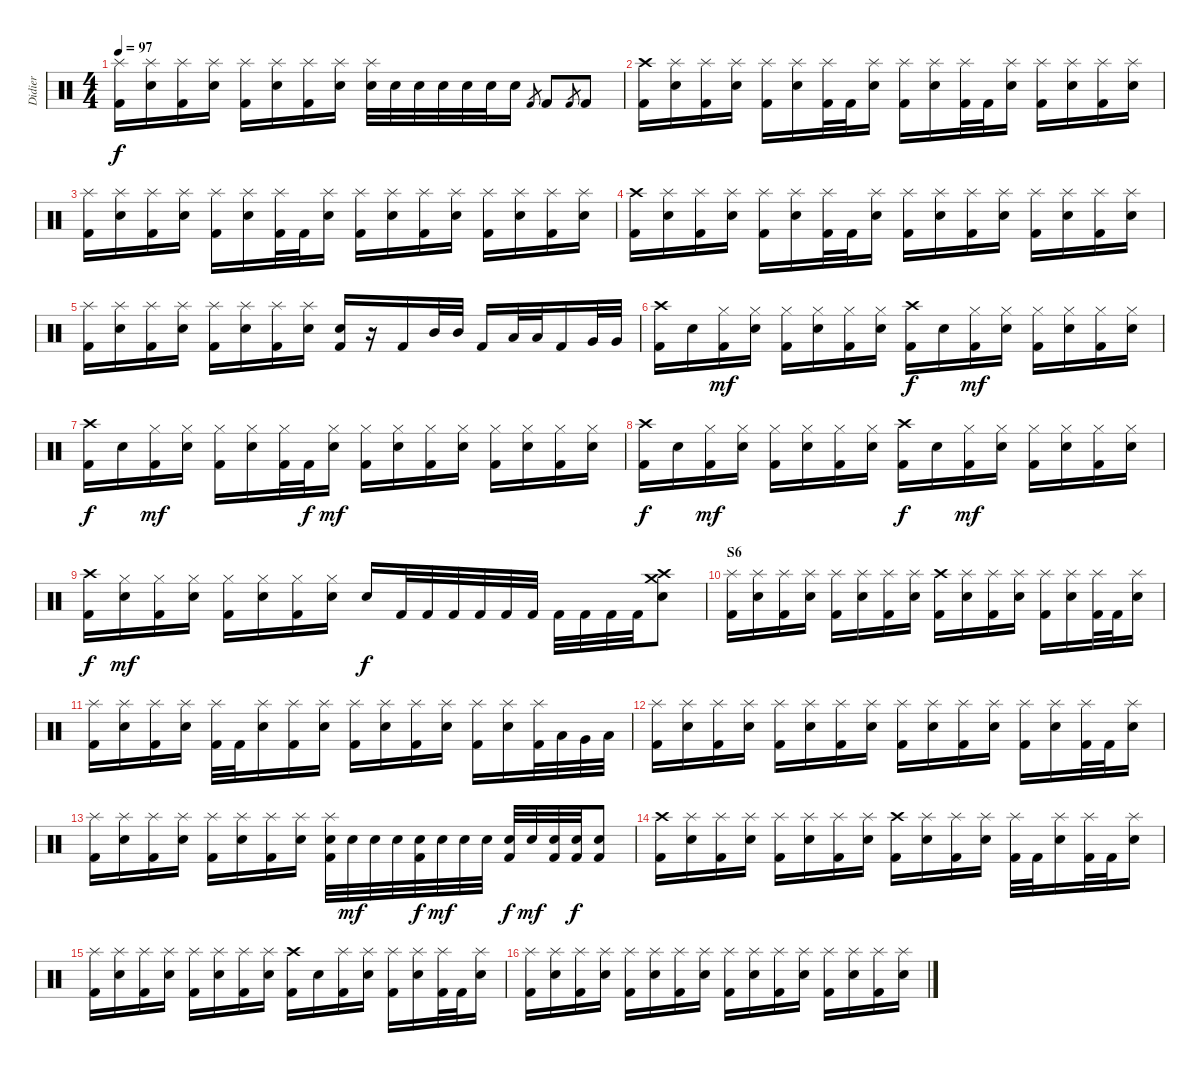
\track ("Didier" "Didier") {instrument percussion}
\staff {score}
\articulation defaults
\ts (4 4)
\tempo 97
\clef neutral
\ks c
("Splash (hit)" "Kick (hit) 2").16{dy f} ("Splash (hit)" "Snare (hit) 2").16 ("Splash (hit)" "Kick (hit) 2").16 ("Splash (hit)" "Snare (hit) 2").16 ("Splash (hit)" "Kick (hit) 2").16 ("Splash (hit)" "Snare (hit) 2").16 ("Splash (hit)" "Kick (hit) 2").16 ("Splash (hit)" "Snare (hit) 2").16 ("Splash (hit)" "Snare (hit) 2").32 "Snare (hit) 2".32 "Snare (hit) 2".32 "Snare (hit) 2".32 "Snare (hit) 2".32 "Snare (hit) 2".32 "Snare (hit) 2".16 "Kick (hit) 2".8{gr} "Kick (hit) 2".8 "Kick (hit) 2".8{gr} "Kick (hit) 2".8 |
("Crash high (hit)" "Kick (hit) 2").16 ("Splash (hit)" "Snare (hit) 2").16 ("Splash (hit)" "Kick (hit) 2").16 ("Splash (hit)" "Snare (hit) 2").16 ("Splash (hit)" "Kick (hit) 2").16 ("Splash (hit)" "Snare (hit) 2").16 ("Splash (hit)" "Kick (hit) 2").32 "Kick (hit) 2".32 ("Splash (hit)" "Snare (hit) 2").16 ("Splash (hit)" "Kick (hit) 2").16 ("Splash (hit)" "Snare (hit) 2").16 ("Splash (hit)" "Kick (hit) 2").32 "Kick (hit) 2".32 ("Splash (hit)" "Snare (hit) 2").16 ("Splash (hit)" "Kick (hit) 2").16 ("Splash (hit)" "Snare (hit) 2").16 ("Splash (hit)" "Kick (hit) 2").16 ("Splash (hit)" "Snare (hit) 2").16 |
("Splash (hit)" "Kick (hit) 2").16 ("Splash (hit)" "Snare (hit) 2").16 ("Splash (hit)" "Kick (hit) 2").16 ("Splash (hit)" "Snare (hit) 2").16 ("Splash (hit)" "Kick (hit) 2").16 ("Splash (hit)" "Snare (hit) 2").16 ("Splash (hit)" "Kick (hit) 2").32 "Kick (hit) 2".32 ("Splash (hit)" "Snare (hit) 2").16 ("Splash (hit)" "Kick (hit) 2").16 ("Splash (hit)" "Snare (hit) 2").16 ("Splash (hit)" "Kick (hit) 2").16 ("Splash (hit)" "Snare (hit) 2").16 ("Splash (hit)" "Kick (hit) 2").16 ("Splash (hit)" "Snare (hit) 2").16 ("Splash (hit)" "Kick (hit) 2").16 ("Splash (hit)" "Snare (hit) 2").16 |
("Crash high (hit)" "Kick (hit) 2").16 ("Splash (hit)" "Snare (hit) 2").16 ("Splash (hit)" "Kick (hit) 2").16 ("Splash (hit)" "Snare (hit) 2").16 ("Splash (hit)" "Kick (hit) 2").16 ("Splash (hit)" "Snare (hit) 2").16 ("Splash (hit)" "Kick (hit) 2").32 "Kick (hit) 2".32 ("Splash (hit)" "Snare (hit) 2").16 ("Splash (hit)" "Kick (hit) 2").16 ("Splash (hit)" "Snare (hit) 2").16 ("Splash (hit)" "Kick (hit) 2").16 ("Splash (hit)" "Snare (hit) 2").16 ("Splash (hit)" "Kick (hit) 2").16 ("Splash (hit)" "Snare (hit) 2").16 ("Splash (hit)" "Kick (hit) 2").16 ("Splash (hit)" "Snare (hit) 2").16 |
("Splash (hit)" "Kick (hit) 2").16 ("Splash (hit)" "Snare (hit) 2").16 ("Splash (hit)" "Kick (hit) 2").16 ("Splash (hit)" "Snare (hit) 2").16 ("Splash (hit)" "Kick (hit) 2").16 ("Splash (hit)" "Snare (hit) 2").16 ("Splash (hit)" "Kick (hit) 2").16 ("Splash (hit)" "Snare (hit) 2").16 ("Kick (hit) 2" "Snare (hit) 2").16 r.16 "Kick (hit) 2".16 "Mid Tom (hit)".32 "Mid Tom (hit)".32 "Kick (hit) 2".16 "Low Tom (hit)".32 "Low Tom (hit)".32 "Kick (hit) 2".16 "Very Low Tom (hit)".32 "Very Low Tom (hit)".32 |
("Crash high (hit)" "Kick (hit) 2").16 "Snare (hit) 2".16 ("Hi-Hat (closed)" "Kick (hit) 2").16{dy mf} ("Hi-Hat (closed)" "Snare (hit) 2").16 ("Hi-Hat (closed)" "Kick (hit) 2").16 ("Hi-Hat (closed)" "Snare (hit) 2").16 ("Hi-Hat (closed)" "Kick (hit) 2").16 ("Hi-Hat (closed)" "Snare (hit) 2").16 ("Crash high (hit)" "Kick (hit) 2").16{dy f} "Snare (hit) 2".16 ("Hi-Hat (closed)" "Kick (hit) 2").16{dy mf} ("Hi-Hat (closed)" "Snare (hit) 2").16 ("Hi-Hat (closed)" "Kick (hit) 2").16 ("Hi-Hat (closed)" "Snare (hit) 2").16 ("Hi-Hat (closed)" "Kick (hit) 2").16 ("Hi-Hat (closed)" "Snare (hit) 2").16 |
("Crash high (hit)" "Kick (hit) 2").16{dy f} "Snare (hit) 2".16 ("Hi-Hat (closed)" "Kick (hit) 2").16{dy mf} ("Hi-Hat (closed)" "Snare (hit) 2").16 ("Hi-Hat (closed)" "Kick (hit) 2").16 ("Hi-Hat (closed)" "Snare (hit) 2").16 ("Hi-Hat (closed)" "Kick (hit) 2").32 "Kick (hit) 2".32{dy f} ("Hi-Hat (closed)" "Snare (hit) 2").16{dy mf} ("Hi-Hat (closed)" "Kick (hit) 2").16 ("Hi-Hat (closed)" "Snare (hit) 2").16 ("Hi-Hat (closed)" "Kick (hit) 2").16 ("Hi-Hat (closed)" "Snare (hit) 2").16 ("Hi-Hat (closed)" "Kick (hit) 2").16 ("Hi-Hat (closed)" "Snare (hit) 2").16 ("Hi-Hat (closed)" "Kick (hit) 2").16 ("Hi-Hat (closed)" "Snare (hit) 2").16 |
("Crash high (hit)" "Kick (hit) 2").16{dy f} "Snare (hit) 2".16 ("Hi-Hat (closed)" "Kick (hit) 2").16{dy mf} ("Hi-Hat (closed)" "Snare (hit) 2").16 ("Hi-Hat (closed)" "Kick (hit) 2").16 ("Hi-Hat (closed)" "Snare (hit) 2").16 ("Hi-Hat (closed)" "Kick (hit) 2").16 ("Hi-Hat (closed)" "Snare (hit) 2").16 ("Crash high (hit)" "Kick (hit) 2").16{dy f} "Snare (hit) 2".16 ("Hi-Hat (closed)" "Kick (hit) 2").16{dy mf} ("Hi-Hat (closed)" "Snare (hit) 2").16 ("Hi-Hat (closed)" "Kick (hit) 2").16 ("Hi-Hat (closed)" "Snare (hit) 2").16 ("Hi-Hat (closed)" "Kick (hit) 2").16 ("Hi-Hat (closed)" "Snare (hit) 2").16 |
("Crash high (hit)" "Kick (hit) 2").16{dy f} ("Hi-Hat (closed)" "Snare (hit) 2").16{dy mf} ("Hi-Hat (closed)" "Kick (hit) 2").16 ("Hi-Hat (closed)" "Snare (hit) 2").16 ("Hi-Hat (closed)" "Kick (hit) 2").16 ("Hi-Hat (closed)" "Snare (hit) 2").16 ("Hi-Hat (closed)" "Kick (hit) 2").16 ("Hi-Hat (closed)" "Snare (hit) 2").16 "Snare (hit) 2".16{dy f} "Kick (hit) 2".32 "Kick (hit) 2".32 "Kick (hit) 2".32 "Kick (hit) 2".32 "Kick (hit) 2".32 "Kick (hit) 2".32 "Kick (hit) 2".32 "Kick (hit) 2".32 "Kick (hit) 2".32 "Kick (hit) 2".32 ("Crash medium (hit)" "Crash high (hit)" "Snare (hit) 2").8 |
\section ("" "S6")
("Splash (hit)" "Kick (hit) 2").16 ("Splash (hit)" "Snare (hit) 2").16 ("Splash (hit)" "Kick (hit) 2").16 ("Splash (hit)" "Snare (hit) 2").16 ("Splash (hit)" "Kick (hit) 2").16 ("Splash (hit)" "Snare (hit) 2").16 ("Splash (hit)" "Kick (hit) 2").16 ("Splash (hit)" "Snare (hit) 2").16 ("Crash high (hit)" "Kick (hit) 2").16 ("Splash (hit)" "Snare (hit) 2").16 ("Splash (hit)" "Kick (hit) 2").16 ("Splash (hit)" "Snare (hit) 2").16 ("Splash (hit)" "Kick (hit) 2").16 ("Splash (hit)" "Snare (hit) 2").16 ("Splash (hit)" "Kick (hit) 2").32 "Kick (hit) 2".32 ("Splash (hit)" "Snare (hit) 2").16 |
("Splash (hit)" "Kick (hit) 2").16 ("Splash (hit)" "Snare (hit) 2").16 ("Splash (hit)" "Kick (hit) 2").16 ("Splash (hit)" "Snare (hit) 2").16 ("Splash (hit)" "Kick (hit) 2").32 "Kick (hit) 2".32 ("Splash (hit)" "Snare (hit) 2").16 ("Splash (hit)" "Kick (hit) 2").16 ("Splash (hit)" "Snare (hit) 2").16 ("Splash (hit)" "Kick (hit) 2").16 ("Splash (hit)" "Snare (hit) 2").16 ("Splash (hit)" "Kick (hit) 2").16 ("Splash (hit)" "Snare (hit) 2").16 ("Splash (hit)" "Kick (hit) 2").16 ("Splash (hit)" "Snare (hit) 2").16 ("Splash (hit)" "Kick (hit) 2").32 "Low Tom (hit)".32 "Very Low Tom (hit)".32 "Low Floor Tom (hit)".32 |
("Splash (hit)" "Kick (hit) 2").16 ("Splash (hit)" "Snare (hit) 2").16 ("Splash (hit)" "Kick (hit) 2").16 ("Splash (hit)" "Snare (hit) 2").16 ("Splash (hit)" "Kick (hit) 2").16 ("Splash (hit)" "Snare (hit) 2").16 ("Splash (hit)" "Kick (hit) 2").16 ("Splash (hit)" "Snare (hit) 2").16 ("Splash (hit)" "Kick (hit) 2").16 ("Splash (hit)" "Snare (hit) 2").16 ("Splash (hit)" "Kick (hit) 2").16 ("Splash (hit)" "Snare (hit) 2").16 ("Splash (hit)" "Kick (hit) 2").16 ("Splash (hit)" "Snare (hit) 2").16 ("Splash (hit)" "Kick (hit) 2").32 "Kick (hit) 2".32 ("Splash (hit)" "Snare (hit) 2").16 |
("Splash (hit)" "Kick (hit) 2").16 ("Splash (hit)" "Snare (hit) 2").16 ("Splash (hit)" "Kick (hit) 2").16 ("Splash (hit)" "Snare (hit) 2").16 ("Splash (hit)" "Kick (hit) 2").16 ("Splash (hit)" "Snare (hit) 2").16 ("Splash (hit)" "Kick (hit) 2").16 ("Splash (hit)" "Snare (hit) 2").16 ("Splash (hit)" "Snare (hit) 2" "Kick (hit) 2").32 "Snare (hit) 2".32{dy mf} "Snare (hit) 2".32 "Snare (hit) 2".32 ("Snare (hit) 2" "Kick (hit) 2").32{dy f} "Snare (hit) 2".32{dy mf} "Snare (hit) 2".32 "Snare (hit) 2".32 ("Snare (hit) 2" "Kick (hit) 2").32{dy f} "Snare (hit) 2".32{dy mf} ("Snare (hit) 2" "Kick (hit) 2").32 ("Snare (hit) 2" "Kick (hit) 2").32{dy f} ("Snare (hit) 2" "Kick (hit) 2").8 |
("Crash high (hit)" "Kick (hit) 2").16 ("Splash (hit)" "Snare (hit) 2").16 ("Splash (hit)" "Kick (hit) 2").16 ("Splash (hit)" "Snare (hit) 2").16 ("Splash (hit)" "Kick (hit) 2").16 ("Splash (hit)" "Snare (hit) 2").16 ("Splash (hit)" "Kick (hit) 2").16 ("Splash (hit)" "Snare (hit) 2").16 ("Crash high (hit)" "Kick (hit) 2").16 ("Splash (hit)" "Snare (hit) 2").16 ("Splash (hit)" "Kick (hit) 2").16 ("Splash (hit)" "Snare (hit) 2").16 ("Splash (hit)" "Kick (hit) 2").32 "Kick (hit) 2".32 ("Splash (hit)" "Snare (hit) 2").16 ("Splash (hit)" "Kick (hit) 2").32 "Kick (hit) 2".32 ("Splash (hit)" "Snare (hit) 2").16 |
("Splash (hit)" "Kick (hit) 2").16 ("Splash (hit)" "Snare (hit) 2").16 ("Splash (hit)" "Kick (hit) 2").16 ("Splash (hit)" "Snare (hit) 2").16 ("Splash (hit)" "Kick (hit) 2").16 ("Splash (hit)" "Snare (hit) 2").16 ("Splash (hit)" "Kick (hit) 2").16 ("Splash (hit)" "Snare (hit) 2").16 ("Crash high (hit)" "Kick (hit) 2").16 "Snare (hit) 2".16 ("Splash (hit)" "Kick (hit) 2").16 ("Splash (hit)" "Snare (hit) 2").16 ("Splash (hit)" "Kick (hit) 2").16 ("Splash (hit)" "Snare (hit) 2").16 ("Splash (hit)" "Kick (hit) 2").32 "Kick (hit) 2".32 ("Splash (hit)" "Snare (hit) 2").16 |
("Splash (hit)" "Kick (hit) 2").16 ("Splash (hit)" "Snare (hit) 2").16 ("Splash (hit)" "Kick (hit) 2").16 ("Splash (hit)" "Snare (hit) 2").16 ("Splash (hit)" "Kick (hit) 2").16 ("Splash (hit)" "Snare (hit) 2").16 ("Splash (hit)" "Kick (hit) 2").16 ("Splash (hit)" "Snare (hit) 2").16 ("Splash (hit)" "Kick (hit) 2").16 ("Splash (hit)" "Snare (hit) 2").16 ("Splash (hit)" "Kick (hit) 2").16 ("Splash (hit)" "Snare (hit) 2").16 ("Splash (hit)" "Kick (hit) 2").16 ("Splash (hit)" "Snare (hit) 2").16 ("Splash (hit)" "Kick (hit) 2").16 ("Splash (hit)" "Snare (hit) 2").16
